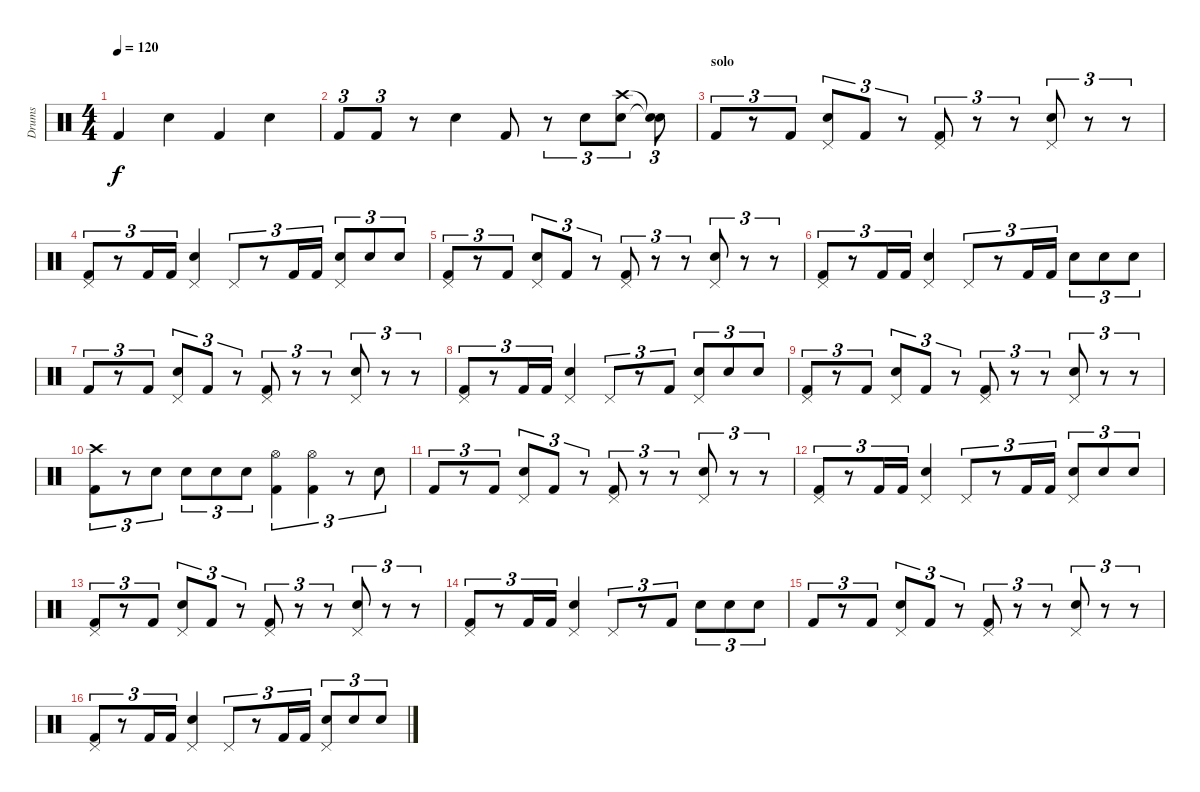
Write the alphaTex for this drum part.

\track ("Drums" "Drums") {instrument percussion}
\staff {score}
\articulation defaults
\ts (4 4)
\tempo 120
\clef neutral
\ks c "Kick (hit) 2".4{dy f} "Snare (hit) 2".4 "Kick (hit) 2".4 "Snare (hit) 2".4
|
"Kick (hit) 2".8{tu (3 2)} "Kick (hit) 2".8{tu (3 2)} r.8 "Snare (hit) 2".4 "Kick (hit) 2".8 r.8{tu (3 2)} "Snare (hit) 2".8{tu (3 2)} ("Crash high (hit)" "Snare (hit) 2").8{tu (3 2)} ("Snare (hit)"{t} "Snare (hit) 2"{t}).8{tu (3 2)} |
\section ("" "solo")
"Kick (hit) 2".8{tu (3 2)} r.8{tu (3 2)} "Kick (hit) 2".8{tu (3 2)} ("Pedal Hi-Hat (hit)" "Snare (hit) 2").8{tu (3 2)} "Kick (hit) 2".8{tu (3 2)} r.8{tu (3 2)} ("Pedal Hi-Hat (hit)" "Kick (hit) 2").8{tu (3 2)} r.8{tu (3 2)} r.8{tu (3 2)} ("Pedal Hi-Hat (hit)" "Snare (hit) 2").8{tu (3 2)} r.8{tu (3 2)} r.8{tu (3 2)} |
("Pedal Hi-Hat (hit)" "Kick (hit) 2").8{tu (3 2)} r.8{tu (3 2)} "Kick (hit) 2".16{tu (3 2)} "Kick (hit) 2".16{tu (3 2)} ("Pedal Hi-Hat (hit)" "Snare (hit) 2").4 "Pedal Hi-Hat (hit)".8{tu (3 2)} r.8{tu (3 2)} "Kick (hit) 2".16{tu (3 2)} "Kick (hit) 2".16{tu (3 2)} ("Pedal Hi-Hat (hit)" "Snare (hit) 2").8{tu (3 2)} "Snare (hit) 2".8{tu (3 2)} "Snare (hit) 2".8{tu (3 2)} |
("Pedal Hi-Hat (hit)" "Kick (hit) 2").8{tu (3 2)} r.8{tu (3 2)} "Kick (hit) 2".8{tu (3 2)} ("Pedal Hi-Hat (hit)" "Snare (hit) 2").8{tu (3 2)} "Kick (hit) 2".8{tu (3 2)} r.8{tu (3 2)} ("Pedal Hi-Hat (hit)" "Kick (hit) 2").8{tu (3 2)} r.8{tu (3 2)} r.8{tu (3 2)} ("Pedal Hi-Hat (hit)" "Snare (hit) 2").8{tu (3 2)} r.8{tu (3 2)} r.8{tu (3 2)} |
("Pedal Hi-Hat (hit)" "Kick (hit) 2").8{tu (3 2)} r.8{tu (3 2)} "Kick (hit) 2".16{tu (3 2)} "Kick (hit) 2".16{tu (3 2)} ("Pedal Hi-Hat (hit)" "Snare (hit) 2").4 "Pedal Hi-Hat (hit)".8{tu (3 2)} r.8{tu (3 2)} "Kick (hit) 2".16{tu (3 2)} "Kick (hit) 2".16{tu (3 2)} "Snare (hit) 2".8{tu (3 2)} "Snare (hit) 2".8{tu (3 2)} "Snare (hit) 2".8{tu (3 2)} |
"Kick (hit) 2".8{tu (3 2)} r.8{tu (3 2)} "Kick (hit) 2".8{tu (3 2)} ("Pedal Hi-Hat (hit)" "Snare (hit) 2").8{tu (3 2)} "Kick (hit) 2".8{tu (3 2)} r.8{tu (3 2)} ("Pedal Hi-Hat (hit)" "Kick (hit) 2").8{tu (3 2)} r.8{tu (3 2)} r.8{tu (3 2)} ("Pedal Hi-Hat (hit)" "Snare (hit) 2").8{tu (3 2)} r.8{tu (3 2)} r.8{tu (3 2)} |
("Pedal Hi-Hat (hit)" "Kick (hit) 2").8{tu (3 2)} r.8{tu (3 2)} "Kick (hit) 2".16{tu (3 2)} "Kick (hit) 2".16{tu (3 2)} ("Pedal Hi-Hat (hit)" "Snare (hit) 2").4 "Pedal Hi-Hat (hit)".8{tu (3 2)} r.8{tu (3 2)} "Kick (hit) 2".8{tu (3 2)} ("Pedal Hi-Hat (hit)" "Snare (hit) 2").8{tu (3 2)} "Snare (hit) 2".8{tu (3 2)} "Snare (hit) 2".8{tu (3 2)} |
("Pedal Hi-Hat (hit)" "Kick (hit) 2").8{tu (3 2)} r.8{tu (3 2)} "Kick (hit) 2".8{tu (3 2)} ("Pedal Hi-Hat (hit)" "Snare (hit) 2").8{tu (3 2)} "Kick (hit) 2".8{tu (3 2)} r.8{tu (3 2)} ("Pedal Hi-Hat (hit)" "Kick (hit) 2").8{tu (3 2)} r.8{tu (3 2)} r.8{tu (3 2)} ("Pedal Hi-Hat (hit)" "Snare (hit) 2").8{tu (3 2)} r.8{tu (3 2)} r.8{tu (3 2)} |
("Crash high (hit)" "Kick (hit) 2").8{tu (3 2)} r.8{tu (3 2)} "Snare (hit) 2".8{tu (3 2)} "Snare (hit) 2".8{tu (3 2)} "Snare (hit) 2".8{tu (3 2)} "Snare (hit) 2".8{tu (3 2)} ("Hi-Hat (open)" "Kick (hit) 2").4{tu (3 2)} ("Hi-Hat (open)" "Kick (hit) 2").4{tu (3 2)} r.8{tu (3 2)} "Snare (hit) 2".8{tu (3 2)} |
"Kick (hit) 2".8{tu (3 2)} r.8{tu (3 2)} "Kick (hit) 2".8{tu (3 2)} ("Pedal Hi-Hat (hit)" "Snare (hit) 2").8{tu (3 2)} "Kick (hit) 2".8{tu (3 2)} r.8{tu (3 2)} ("Pedal Hi-Hat (hit)" "Kick (hit) 2").8{tu (3 2)} r.8{tu (3 2)} r.8{tu (3 2)} ("Pedal Hi-Hat (hit)" "Snare (hit) 2").8{tu (3 2)} r.8{tu (3 2)} r.8{tu (3 2)} |
("Pedal Hi-Hat (hit)" "Kick (hit) 2").8{tu (3 2)} r.8{tu (3 2)} "Kick (hit) 2".16{tu (3 2)} "Kick (hit) 2".16{tu (3 2)} ("Pedal Hi-Hat (hit)" "Snare (hit) 2").4 "Pedal Hi-Hat (hit)".8{tu (3 2)} r.8{tu (3 2)} "Kick (hit) 2".16{tu (3 2)} "Kick (hit) 2".16{tu (3 2)} ("Pedal Hi-Hat (hit)" "Snare (hit) 2").8{tu (3 2)} "Snare (hit) 2".8{tu (3 2)} "Snare (hit) 2".8{tu (3 2)} |
("Pedal Hi-Hat (hit)" "Kick (hit) 2").8{tu (3 2)} r.8{tu (3 2)} "Kick (hit) 2".8{tu (3 2)} ("Pedal Hi-Hat (hit)" "Snare (hit) 2").8{tu (3 2)} "Kick (hit) 2".8{tu (3 2)} r.8{tu (3 2)} ("Pedal Hi-Hat (hit)" "Kick (hit) 2").8{tu (3 2)} r.8{tu (3 2)} r.8{tu (3 2)} ("Pedal Hi-Hat (hit)" "Snare (hit) 2").8{tu (3 2)} r.8{tu (3 2)} r.8{tu (3 2)} |
("Pedal Hi-Hat (hit)" "Kick (hit) 2").8{tu (3 2)} r.8{tu (3 2)} "Kick (hit) 2".16{tu (3 2)} "Kick (hit) 2".16{tu (3 2)} ("Pedal Hi-Hat (hit)" "Snare (hit) 2").4 "Pedal Hi-Hat (hit)".8{tu (3 2)} r.8{tu (3 2)} "Kick (hit) 2".8{tu (3 2)} "Snare (hit) 2".8{tu (3 2)} "Snare (hit) 2".8{tu (3 2)} "Snare (hit) 2".8{tu (3 2)} |
"Kick (hit) 2".8{tu (3 2)} r.8{tu (3 2)} "Kick (hit) 2".8{tu (3 2)} ("Pedal Hi-Hat (hit)" "Snare (hit) 2").8{tu (3 2)} "Kick (hit) 2".8{tu (3 2)} r.8{tu (3 2)} ("Pedal Hi-Hat (hit)" "Kick (hit) 2").8{tu (3 2)} r.8{tu (3 2)} r.8{tu (3 2)} ("Pedal Hi-Hat (hit)" "Snare (hit) 2").8{tu (3 2)} r.8{tu (3 2)} r.8{tu (3 2)} |
("Pedal Hi-Hat (hit)" "Kick (hit) 2").8{tu (3 2)} r.8{tu (3 2)} "Kick (hit) 2".16{tu (3 2)} "Kick (hit) 2".16{tu (3 2)} ("Pedal Hi-Hat (hit)" "Snare (hit) 2").4 "Pedal Hi-Hat (hit)".8{tu (3 2)} r.8{tu (3 2)} "Kick (hit) 2".16{tu (3 2)} "Kick (hit) 2".16{tu (3 2)} ("Pedal Hi-Hat (hit)" "Snare (hit) 2").8{tu (3 2)} "Snare (hit) 2".8{tu (3 2)} "Snare (hit) 2".8{tu (3 2)}
